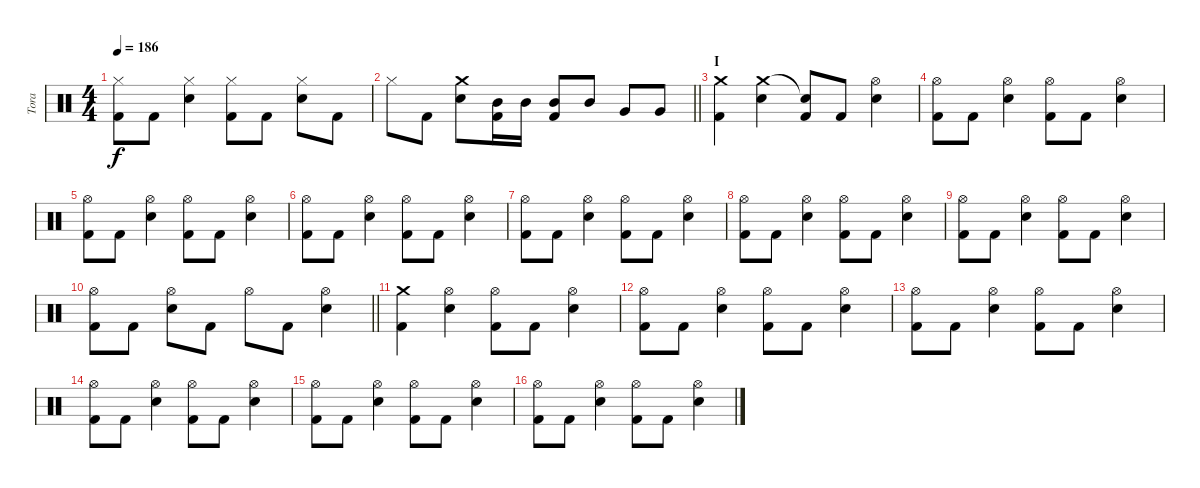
\track ("Tora" "Tora") {instrument percussion}
\staff {score}
\articulation defaults
\ts (4 4)
\tempo 186
\clef neutral
\ks c
("Hi-Hat (closed)" "Kick (hit) 2").8{dy f} "Kick (hit) 2".8 ("Hi-Hat (closed)" "Electric Snare (hit)").4 ("Hi-Hat (closed)" "Kick (hit) 2").8 "Kick (hit) 2".8 ("Hi-Hat (closed)" "Electric Snare (hit)").8 "Kick (hit) 2".8 |
\barLineRight lightlight "Hi-Hat (closed)".8 "Kick (hit) 2".8
("Crash medium (hit)" "Electric Snare (hit)").8 ("Mid Tom (hit)" "Kick (hit) 2").16 "Mid Tom (hit)".16 ("Mid Tom (hit)" "Kick (hit) 2").8 "Mid Tom (hit)".8 "Very Low Tom (hit)".8 "Very Low Tom (hit)".8 |
\section ("" "I")
("Crash medium (hit)" "Kick (hit) 2").4 ("Crash medium (hit)" "Electric Snare (hit)").4 ("Snare (hit)"{t} "Kick (hit) 2").8 "Kick (hit) 2".8 ("Hi-Hat (open)" "Electric Snare (hit)").4 |
("Hi-Hat (open)" "Kick (hit) 2").8 "Kick (hit) 2".8 ("Hi-Hat (open)" "Electric Snare (hit)").4 ("Hi-Hat (open)" "Kick (hit) 2").8 "Kick (hit) 2".8 ("Hi-Hat (open)" "Electric Snare (hit)").4 |
("Hi-Hat (open)" "Kick (hit) 2").8 "Kick (hit) 2".8 ("Hi-Hat (open)" "Electric Snare (hit)").4 ("Hi-Hat (open)" "Kick (hit) 2").8 "Kick (hit) 2".8 ("Hi-Hat (open)" "Electric Snare (hit)").4 |
("Hi-Hat (open)" "Kick (hit) 2").8 "Kick (hit) 2".8 ("Hi-Hat (open)" "Electric Snare (hit)").4 ("Hi-Hat (open)" "Kick (hit) 2").8 "Kick (hit) 2".8 ("Hi-Hat (open)" "Electric Snare (hit)").4 |
("Hi-Hat (open)" "Kick (hit) 2").8 "Kick (hit) 2".8 ("Hi-Hat (open)" "Electric Snare (hit)").4 ("Hi-Hat (open)" "Kick (hit) 2").8 "Kick (hit) 2".8 ("Hi-Hat (open)" "Electric Snare (hit)").4 |
("Hi-Hat (open)" "Kick (hit) 2").8 "Kick (hit) 2".8 ("Hi-Hat (open)" "Electric Snare (hit)").4 ("Hi-Hat (open)" "Kick (hit) 2").8 "Kick (hit) 2".8 ("Hi-Hat (open)" "Electric Snare (hit)").4 |
("Hi-Hat (open)" "Kick (hit) 2").8 "Kick (hit) 2".8 ("Hi-Hat (open)" "Electric Snare (hit)").4 ("Hi-Hat (open)" "Kick (hit) 2").8 "Kick (hit) 2".8 ("Hi-Hat (open)" "Electric Snare (hit)").4 |
\barLineRight lightlight
("Hi-Hat (open)" "Kick (hit) 2").8 "Kick (hit) 2".8 ("Hi-Hat (open)" "Electric Snare (hit)").8 "Kick (hit) 2".8 "Hi-Hat (open)".8 "Kick (hit) 2".8 ("Hi-Hat (open)" "Electric Snare (hit)").4 |
("Crash medium (hit)" "Kick (hit) 2").4 ("Hi-Hat (open)" "Electric Snare (hit)").4 ("Hi-Hat (open)" "Kick (hit) 2").8 "Kick (hit) 2".8 ("Hi-Hat (open)" "Electric Snare (hit)").4 |
("Hi-Hat (open)" "Kick (hit) 2").8 "Kick (hit) 2".8 ("Hi-Hat (open)" "Electric Snare (hit)").4 ("Hi-Hat (open)" "Kick (hit) 2").8 "Kick (hit) 2".8 ("Hi-Hat (open)" "Electric Snare (hit)").4 |
("Hi-Hat (open)" "Kick (hit) 2").8 "Kick (hit) 2".8 ("Hi-Hat (open)" "Electric Snare (hit)").4 ("Hi-Hat (open)" "Kick (hit) 2").8 "Kick (hit) 2".8 ("Hi-Hat (open)" "Electric Snare (hit)").4 |
("Hi-Hat (open)" "Kick (hit) 2").8 "Kick (hit) 2".8 ("Hi-Hat (open)" "Electric Snare (hit)").4 ("Hi-Hat (open)" "Kick (hit) 2").8 "Kick (hit) 2".8 ("Hi-Hat (open)" "Electric Snare (hit)").4 |
("Hi-Hat (open)" "Kick (hit) 2").8 "Kick (hit) 2".8 ("Hi-Hat (open)" "Electric Snare (hit)").4 ("Hi-Hat (open)" "Kick (hit) 2").8 "Kick (hit) 2".8 ("Hi-Hat (open)" "Electric Snare (hit)").4 |
("Hi-Hat (open)" "Kick (hit) 2").8 "Kick (hit) 2".8 ("Hi-Hat (open)" "Electric Snare (hit)").4 ("Hi-Hat (open)" "Kick (hit) 2").8 "Kick (hit) 2".8 ("Hi-Hat (open)" "Electric Snare (hit)").4
